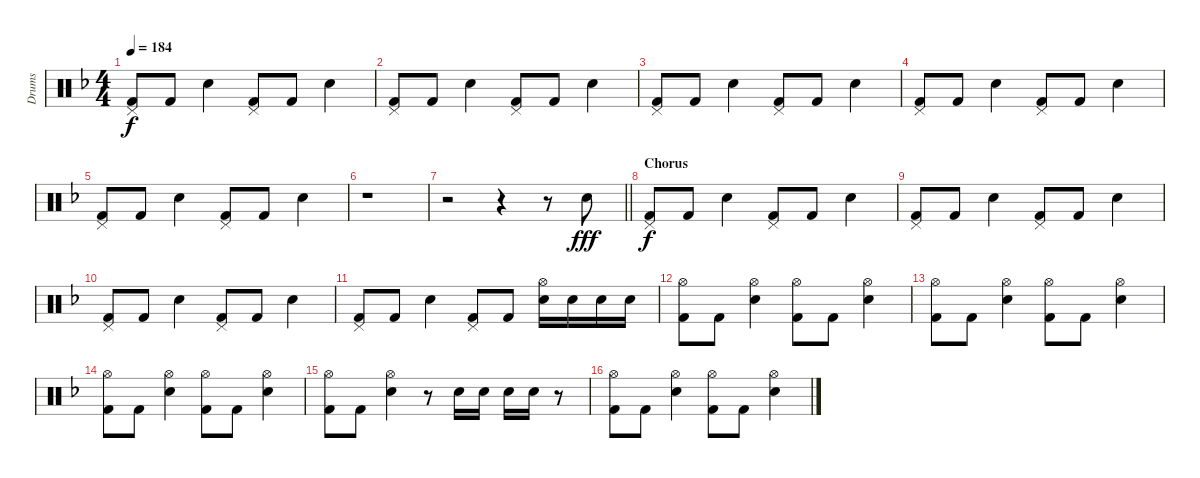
\track ("Drums" "Drums") {instrument percussion}
\staff {score}
\articulation defaults
\ts (4 4)
\tempo 184
\clef neutral
\ks f
("Pedal Hi-Hat (hit)" "Kick (hit) 2").8{dy f} "Kick (hit) 2".8 "Electric Snare (hit)".4 ("Pedal Hi-Hat (hit)" "Kick (hit) 2").8 "Kick (hit) 2".8 "Electric Snare (hit)".4 |
("Pedal Hi-Hat (hit)" "Kick (hit) 2").8 "Kick (hit) 2".8 "Electric Snare (hit)".4 ("Pedal Hi-Hat (hit)" "Kick (hit) 2").8 "Kick (hit) 2".8 "Electric Snare (hit)".4 |
("Pedal Hi-Hat (hit)" "Kick (hit) 2").8 "Kick (hit) 2".8 "Electric Snare (hit)".4 ("Pedal Hi-Hat (hit)" "Kick (hit) 2").8 "Kick (hit) 2".8 "Electric Snare (hit)".4 |
("Pedal Hi-Hat (hit)" "Kick (hit) 2").8 "Kick (hit) 2".8 "Electric Snare (hit)".4 ("Pedal Hi-Hat (hit)" "Kick (hit) 2").8 "Kick (hit) 2".8 "Electric Snare (hit)".4 |
("Pedal Hi-Hat (hit)" "Kick (hit) 2").8 "Kick (hit) 2".8 "Electric Snare (hit)".4 ("Pedal Hi-Hat (hit)" "Kick (hit) 2").8 "Kick (hit) 2".8 "Electric Snare (hit)".4 |
r.1 |
\barLineRight lightlight
r.2 r.4 r.8 "Electric Snare (hit)".8{dy fff} |
\section ("" "Chorus")
("Pedal Hi-Hat (hit)" "Kick (hit) 2").8{dy f} "Kick (hit) 2".8 "Electric Snare (hit)".4 ("Pedal Hi-Hat (hit)" "Kick (hit) 2").8 "Kick (hit) 2".8 "Electric Snare (hit)".4 |
("Pedal Hi-Hat (hit)" "Kick (hit) 2").8 "Kick (hit) 2".8 "Electric Snare (hit)".4 ("Pedal Hi-Hat (hit)" "Kick (hit) 2").8 "Kick (hit) 2".8 "Electric Snare (hit)".4 |
("Pedal Hi-Hat (hit)" "Kick (hit) 2").8 "Kick (hit) 2".8 "Electric Snare (hit)".4 ("Pedal Hi-Hat (hit)" "Kick (hit) 2").8 "Kick (hit) 2".8 "Electric Snare (hit)".4 |
("Pedal Hi-Hat (hit)" "Kick (hit) 2").8 "Kick (hit) 2".8 "Electric Snare (hit)".4 ("Pedal Hi-Hat (hit)" "Kick (hit) 2").8 "Kick (hit) 2".8 ("Electric Snare (hit)" "Hi-Hat (open)").16 "Electric Snare (hit)".16 "Electric Snare (hit)".16 "Electric Snare (hit)".16 |
("Hi-Hat (open)" "Kick (hit) 2").8 "Kick (hit) 2".8 ("Electric Snare (hit)" "Hi-Hat (open)").4 ("Hi-Hat (open)" "Kick (hit) 2").8 "Kick (hit) 2".8 ("Electric Snare (hit)" "Hi-Hat (open)").4 |
("Hi-Hat (open)" "Kick (hit) 2").8 "Kick (hit) 2".8 ("Electric Snare (hit)" "Hi-Hat (open)").4 ("Hi-Hat (open)" "Kick (hit) 2").8 "Kick (hit) 2".8 ("Electric Snare (hit)" "Hi-Hat (open)").4 |
("Hi-Hat (open)" "Kick (hit) 2").8 "Kick (hit) 2".8 ("Electric Snare (hit)" "Hi-Hat (open)").4 ("Hi-Hat (open)" "Kick (hit) 2").8 "Kick (hit) 2".8 ("Electric Snare (hit)" "Hi-Hat (open)").4 |
("Hi-Hat (open)" "Kick (hit) 2").8 "Kick (hit) 2".8 ("Electric Snare (hit)" "Hi-Hat (open)").4 r.8 "Electric Snare (hit)".16 "Electric Snare (hit)".16 "Electric Snare (hit)".16 "Electric Snare (hit)".16 r.8 |
("Hi-Hat (open)" "Kick (hit) 2").8 "Kick (hit) 2".8 ("Electric Snare (hit)" "Hi-Hat (open)").4 ("Hi-Hat (open)" "Kick (hit) 2").8 "Kick (hit) 2".8 ("Electric Snare (hit)" "Hi-Hat (open)").4
